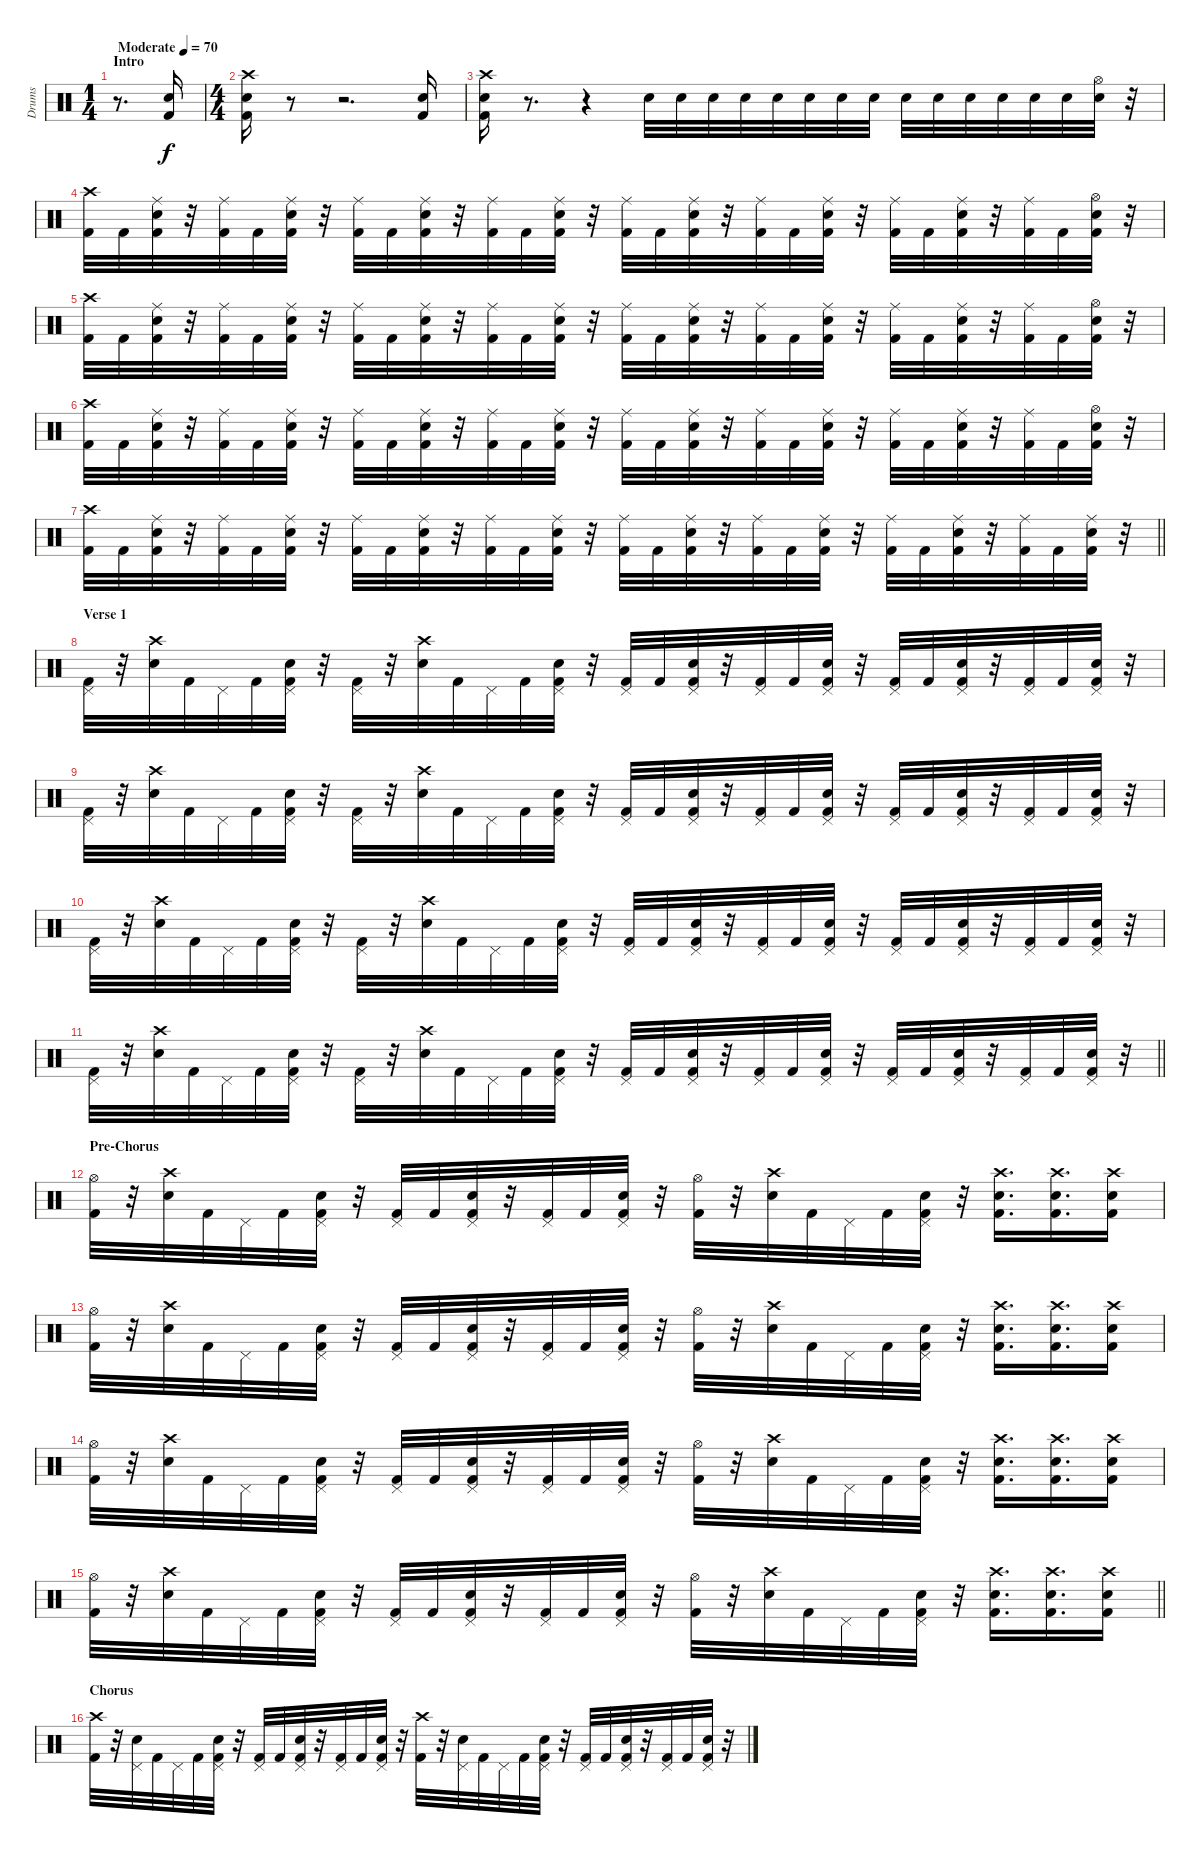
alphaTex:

\track ("Drums" "Drums") {instrument percussion}
\staff {score}
\articulation defaults
\ts (1 4)
\section ("" "Intro")
\tempo (70 "Moderate")
\clef neutral
\ks c
r.8{d dy f} ("Snare (hit) 2" "Kick (hit) 2").16 |
\ts (4 4)
("Crash high (hit)" "Snare (hit) 2" "Kick (hit) 2").16 r.8 r.2{d} ("Snare (hit) 2" "Kick (hit) 2").16 |
("Crash high (hit)" "Snare (hit) 2" "Kick (hit) 2").16 r.8{d} r.4 "Snare (hit) 2".32 "Snare (hit) 2".32 "Snare (hit) 2".32 "Snare (hit) 2".32 "Snare (hit) 2".32 "Snare (hit) 2".32 "Snare (hit) 2".32 "Snare (hit) 2".32 "Snare (hit) 2".32 "Snare (hit) 2".32 "Snare (hit) 2".32 "Snare (hit) 2".32 "Snare (hit) 2".32 "Snare (hit) 2".32 ("Hi-Hat (open)" "Snare (hit) 2").32 r.32 |
("Crash high (hit)" "Kick (hit) 2").32 "Kick (hit) 2".32 ("Ride (middle)" "Snare (hit) 2" "Kick (hit) 2").32 r.32 ("Ride (middle)" "Kick (hit) 2").32 "Kick (hit) 2".32 ("Ride (middle)" "Snare (hit) 2" "Kick (hit) 2").32 r.32 ("Ride (middle)" "Kick (hit) 2").32 "Kick (hit) 2".32 ("Ride (middle)" "Snare (hit) 2" "Kick (hit) 2").32 r.32 ("Ride (middle)" "Kick (hit) 2").32 "Kick (hit) 2".32 ("Ride (middle)" "Snare (hit) 2" "Kick (hit) 2").32 r.32 ("Ride (middle)" "Kick (hit) 2").32 "Kick (hit) 2".32 ("Ride (middle)" "Snare (hit) 2" "Kick (hit) 2").32 r.32 ("Ride (middle)" "Kick (hit) 2").32 "Kick (hit) 2".32 ("Ride (middle)" "Snare (hit) 2" "Kick (hit) 2").32 r.32 ("Ride (middle)" "Kick (hit) 2").32 "Kick (hit) 2".32 ("Ride (middle)" "Snare (hit) 2" "Kick (hit) 2").32 r.32 ("Ride (middle)" "Kick (hit) 2").32 "Kick (hit) 2".32 ("Hi-Hat (open)" "Snare (hit) 2" "Kick (hit) 2").32 r.32 |
("Crash high (hit)" "Kick (hit) 2").32 "Kick (hit) 2".32 ("Ride (middle)" "Snare (hit) 2" "Kick (hit) 2").32 r.32 ("Ride (middle)" "Kick (hit) 2").32 "Kick (hit) 2".32 ("Ride (middle)" "Snare (hit) 2" "Kick (hit) 2").32 r.32 ("Ride (middle)" "Kick (hit) 2").32 "Kick (hit) 2".32 ("Ride (middle)" "Snare (hit) 2" "Kick (hit) 2").32 r.32 ("Ride (middle)" "Kick (hit) 2").32 "Kick (hit) 2".32 ("Ride (middle)" "Snare (hit) 2" "Kick (hit) 2").32 r.32 ("Ride (middle)" "Kick (hit) 2").32 "Kick (hit) 2".32 ("Ride (middle)" "Snare (hit) 2" "Kick (hit) 2").32 r.32 ("Ride (middle)" "Kick (hit) 2").32 "Kick (hit) 2".32 ("Ride (middle)" "Snare (hit) 2" "Kick (hit) 2").32 r.32 ("Ride (middle)" "Kick (hit) 2").32 "Kick (hit) 2".32 ("Ride (middle)" "Snare (hit) 2" "Kick (hit) 2").32 r.32 ("Ride (middle)" "Kick (hit) 2").32 "Kick (hit) 2".32 ("Hi-Hat (open)" "Snare (hit) 2" "Kick (hit) 2").32 r.32 |
("Crash high (hit)" "Kick (hit) 2").32 "Kick (hit) 2".32 ("Ride (middle)" "Snare (hit) 2" "Kick (hit) 2").32 r.32 ("Ride (middle)" "Kick (hit) 2").32 "Kick (hit) 2".32 ("Ride (middle)" "Snare (hit) 2" "Kick (hit) 2").32 r.32 ("Ride (middle)" "Kick (hit) 2").32 "Kick (hit) 2".32 ("Ride (middle)" "Snare (hit) 2" "Kick (hit) 2").32 r.32 ("Ride (middle)" "Kick (hit) 2").32 "Kick (hit) 2".32 ("Ride (middle)" "Snare (hit) 2" "Kick (hit) 2").32 r.32 ("Ride (middle)" "Kick (hit) 2").32 "Kick (hit) 2".32 ("Ride (middle)" "Snare (hit) 2" "Kick (hit) 2").32 r.32 ("Ride (middle)" "Kick (hit) 2").32 "Kick (hit) 2".32 ("Ride (middle)" "Snare (hit) 2" "Kick (hit) 2").32 r.32 ("Ride (middle)" "Kick (hit) 2").32 "Kick (hit) 2".32 ("Ride (middle)" "Snare (hit) 2" "Kick (hit) 2").32 r.32 ("Ride (middle)" "Kick (hit) 2").32 "Kick (hit) 2".32 ("Hi-Hat (open)" "Snare (hit) 2" "Kick (hit) 2").32 r.32 |
\barLineRight lightlight
("Crash high (hit)" "Kick (hit) 2").32 "Kick (hit) 2".32 ("Ride (middle)" "Snare (hit) 2" "Kick (hit) 2").32 r.32 ("Ride (middle)" "Kick (hit) 2").32 "Kick (hit) 2".32 ("Ride (middle)" "Snare (hit) 2" "Kick (hit) 2").32 r.32 ("Ride (middle)" "Kick (hit) 2").32 "Kick (hit) 2".32 ("Ride (middle)" "Snare (hit) 2" "Kick (hit) 2").32 r.32 ("Ride (middle)" "Kick (hit) 2").32 "Kick (hit) 2".32 ("Ride (middle)" "Snare (hit) 2" "Kick (hit) 2").32 r.32 ("Ride (middle)" "Kick (hit) 2").32 "Kick (hit) 2".32 ("Ride (middle)" "Snare (hit) 2" "Kick (hit) 2").32 r.32 ("Ride (middle)" "Kick (hit) 2").32 "Kick (hit) 2".32 ("Ride (middle)" "Snare (hit) 2" "Kick (hit) 2").32 r.32 ("Ride (middle)" "Kick (hit) 2").32 "Kick (hit) 2".32 ("Ride (middle)" "Snare (hit) 2" "Kick (hit) 2").32 r.32 ("Ride (middle)" "Kick (hit) 2").32 "Kick (hit) 2".32 ("Ride (middle)" "Snare (hit) 2" "Kick (hit) 2").32 r.32 |
\section ("" "Verse 1")
("Pedal Hi-Hat (hit)" "Kick (hit) 2").32 r.32 ("Crash high (hit)" "Snare (hit) 2").32 "Kick (hit) 2".32 "Pedal Hi-Hat (hit)".32 "Kick (hit) 2".32 ("Pedal Hi-Hat (hit)" "Snare (hit) 2" "Kick (hit) 2").32 r.32 ("Pedal Hi-Hat (hit)" "Kick (hit) 2").32 r.32 ("Crash high (hit)" "Snare (hit) 2").32 "Kick (hit) 2".32 "Pedal Hi-Hat (hit)".32 "Kick (hit) 2".32 ("Pedal Hi-Hat (hit)" "Snare (hit) 2" "Kick (hit) 2").32 r.32 ("Pedal Hi-Hat (hit)" "Kick (hit) 2").32 "Kick (hit) 2".32 ("Pedal Hi-Hat (hit)" "Snare (hit) 2" "Kick (hit) 2").32 r.32 ("Pedal Hi-Hat (hit)" "Kick (hit) 2").32 "Kick (hit) 2".32 ("Pedal Hi-Hat (hit)" "Snare (hit) 2" "Kick (hit) 2").32 r.32 ("Pedal Hi-Hat (hit)" "Kick (hit) 2").32 "Kick (hit) 2".32 ("Pedal Hi-Hat (hit)" "Snare (hit) 2" "Kick (hit) 2").32 r.32 ("Pedal Hi-Hat (hit)" "Kick (hit) 2").32 "Kick (hit) 2".32 ("Pedal Hi-Hat (hit)" "Snare (hit) 2" "Kick (hit) 2").32 r.32 |
("Pedal Hi-Hat (hit)" "Kick (hit) 2").32 r.32 ("Crash high (hit)" "Snare (hit) 2").32 "Kick (hit) 2".32 "Pedal Hi-Hat (hit)".32 "Kick (hit) 2".32 ("Pedal Hi-Hat (hit)" "Snare (hit) 2" "Kick (hit) 2").32 r.32 ("Pedal Hi-Hat (hit)" "Kick (hit) 2").32 r.32 ("Crash high (hit)" "Snare (hit) 2").32 "Kick (hit) 2".32 "Pedal Hi-Hat (hit)".32 "Kick (hit) 2".32 ("Pedal Hi-Hat (hit)" "Snare (hit) 2" "Kick (hit) 2").32 r.32 ("Pedal Hi-Hat (hit)" "Kick (hit) 2").32 "Kick (hit) 2".32 ("Pedal Hi-Hat (hit)" "Snare (hit) 2" "Kick (hit) 2").32 r.32 ("Pedal Hi-Hat (hit)" "Kick (hit) 2").32 "Kick (hit) 2".32 ("Pedal Hi-Hat (hit)" "Snare (hit) 2" "Kick (hit) 2").32 r.32 ("Pedal Hi-Hat (hit)" "Kick (hit) 2").32 "Kick (hit) 2".32 ("Pedal Hi-Hat (hit)" "Snare (hit) 2" "Kick (hit) 2").32 r.32 ("Pedal Hi-Hat (hit)" "Kick (hit) 2").32 "Kick (hit) 2".32 ("Pedal Hi-Hat (hit)" "Snare (hit) 2" "Kick (hit) 2").32 r.32 |
("Pedal Hi-Hat (hit)" "Kick (hit) 2").32 r.32 ("Crash high (hit)" "Snare (hit) 2").32 "Kick (hit) 2".32 "Pedal Hi-Hat (hit)".32 "Kick (hit) 2".32 ("Pedal Hi-Hat (hit)" "Snare (hit) 2" "Kick (hit) 2").32 r.32 ("Pedal Hi-Hat (hit)" "Kick (hit) 2").32 r.32 ("Crash high (hit)" "Snare (hit) 2").32 "Kick (hit) 2".32 "Pedal Hi-Hat (hit)".32 "Kick (hit) 2".32 ("Pedal Hi-Hat (hit)" "Snare (hit) 2" "Kick (hit) 2").32 r.32 ("Pedal Hi-Hat (hit)" "Kick (hit) 2").32 "Kick (hit) 2".32 ("Pedal Hi-Hat (hit)" "Snare (hit) 2" "Kick (hit) 2").32 r.32 ("Pedal Hi-Hat (hit)" "Kick (hit) 2").32 "Kick (hit) 2".32 ("Pedal Hi-Hat (hit)" "Snare (hit) 2" "Kick (hit) 2").32 r.32 ("Pedal Hi-Hat (hit)" "Kick (hit) 2").32 "Kick (hit) 2".32 ("Pedal Hi-Hat (hit)" "Snare (hit) 2" "Kick (hit) 2").32 r.32 ("Pedal Hi-Hat (hit)" "Kick (hit) 2").32 "Kick (hit) 2".32 ("Pedal Hi-Hat (hit)" "Snare (hit) 2" "Kick (hit) 2").32 r.32 |
\barLineRight lightlight
("Pedal Hi-Hat (hit)" "Kick (hit) 2").32 r.32 ("Crash high (hit)" "Snare (hit) 2").32 "Kick (hit) 2".32 "Pedal Hi-Hat (hit)".32 "Kick (hit) 2".32 ("Pedal Hi-Hat (hit)" "Snare (hit) 2" "Kick (hit) 2").32 r.32 ("Pedal Hi-Hat (hit)" "Kick (hit) 2").32 r.32 ("Crash high (hit)" "Snare (hit) 2").32 "Kick (hit) 2".32 "Pedal Hi-Hat (hit)".32 "Kick (hit) 2".32 ("Pedal Hi-Hat (hit)" "Snare (hit) 2" "Kick (hit) 2").32 r.32 ("Pedal Hi-Hat (hit)" "Kick (hit) 2").32 "Kick (hit) 2".32 ("Pedal Hi-Hat (hit)" "Snare (hit) 2" "Kick (hit) 2").32 r.32 ("Pedal Hi-Hat (hit)" "Kick (hit) 2").32 "Kick (hit) 2".32 ("Pedal Hi-Hat (hit)" "Snare (hit) 2" "Kick (hit) 2").32 r.32 ("Pedal Hi-Hat (hit)" "Kick (hit) 2").32 "Kick (hit) 2".32 ("Pedal Hi-Hat (hit)" "Snare (hit) 2" "Kick (hit) 2").32 r.32 ("Pedal Hi-Hat (hit)" "Kick (hit) 2").32 "Kick (hit) 2".32 ("Pedal Hi-Hat (hit)" "Snare (hit) 2" "Kick (hit) 2").32 r.32 |
\section ("" "Pre-Chorus")
("Hi-Hat (open)" "Kick (hit) 2").32 r.32 ("Crash high (hit)" "Snare (hit) 2").32 "Kick (hit) 2".32 "Pedal Hi-Hat (hit)".32 "Kick (hit) 2".32 ("Pedal Hi-Hat (hit)" "Snare (hit) 2" "Kick (hit) 2").32 r.32 ("Pedal Hi-Hat (hit)" "Kick (hit) 2").32 "Kick (hit) 2".32 ("Pedal Hi-Hat (hit)" "Snare (hit) 2" "Kick (hit) 2").32 r.32 ("Pedal Hi-Hat (hit)" "Kick (hit) 2").32 "Kick (hit) 2".32 ("Pedal Hi-Hat (hit)" "Snare (hit) 2" "Kick (hit) 2").32 r.32 ("Hi-Hat (open)" "Kick (hit) 2").32 r.32 ("Crash high (hit)" "Snare (hit) 2").32 "Kick (hit) 2".32 "Pedal Hi-Hat (hit)".32 "Kick (hit) 2".32 ("Pedal Hi-Hat (hit)" "Snare (hit) 2" "Kick (hit) 2").32 r.32 ("Crash high (hit)" "Snare (hit) 2" "Kick (hit) 2").16{d} ("Crash high (hit)" "Snare (hit) 2" "Kick (hit) 2").16{d} ("Crash high (hit)" "Snare (hit) 2" "Kick (hit) 2").16 |
("Hi-Hat (open)" "Kick (hit) 2").32 r.32 ("Crash high (hit)" "Snare (hit) 2").32 "Kick (hit) 2".32 "Pedal Hi-Hat (hit)".32 "Kick (hit) 2".32 ("Pedal Hi-Hat (hit)" "Snare (hit) 2" "Kick (hit) 2").32 r.32 ("Pedal Hi-Hat (hit)" "Kick (hit) 2").32 "Kick (hit) 2".32 ("Pedal Hi-Hat (hit)" "Snare (hit) 2" "Kick (hit) 2").32 r.32 ("Pedal Hi-Hat (hit)" "Kick (hit) 2").32 "Kick (hit) 2".32 ("Pedal Hi-Hat (hit)" "Snare (hit) 2" "Kick (hit) 2").32 r.32 ("Hi-Hat (open)" "Kick (hit) 2").32 r.32 ("Crash high (hit)" "Snare (hit) 2").32 "Kick (hit) 2".32 "Pedal Hi-Hat (hit)".32 "Kick (hit) 2".32 ("Pedal Hi-Hat (hit)" "Snare (hit) 2" "Kick (hit) 2").32 r.32 ("Crash high (hit)" "Snare (hit) 2" "Kick (hit) 2").16{d} ("Crash high (hit)" "Snare (hit) 2" "Kick (hit) 2").16{d} ("Crash high (hit)" "Snare (hit) 2" "Kick (hit) 2").16 |
("Hi-Hat (open)" "Kick (hit) 2").32 r.32 ("Crash high (hit)" "Snare (hit) 2").32 "Kick (hit) 2".32 "Pedal Hi-Hat (hit)".32 "Kick (hit) 2".32 ("Pedal Hi-Hat (hit)" "Snare (hit) 2" "Kick (hit) 2").32 r.32 ("Pedal Hi-Hat (hit)" "Kick (hit) 2").32 "Kick (hit) 2".32 ("Pedal Hi-Hat (hit)" "Snare (hit) 2" "Kick (hit) 2").32 r.32 ("Pedal Hi-Hat (hit)" "Kick (hit) 2").32 "Kick (hit) 2".32 ("Pedal Hi-Hat (hit)" "Snare (hit) 2" "Kick (hit) 2").32 r.32 ("Hi-Hat (open)" "Kick (hit) 2").32 r.32 ("Crash high (hit)" "Snare (hit) 2").32 "Kick (hit) 2".32 "Pedal Hi-Hat (hit)".32 "Kick (hit) 2".32 ("Pedal Hi-Hat (hit)" "Snare (hit) 2" "Kick (hit) 2").32 r.32 ("Crash high (hit)" "Snare (hit) 2" "Kick (hit) 2").16{d} ("Crash high (hit)" "Snare (hit) 2" "Kick (hit) 2").16{d} ("Crash high (hit)" "Snare (hit) 2" "Kick (hit) 2").16 |
\barLineRight lightlight
("Hi-Hat (open)" "Kick (hit) 2").32 r.32 ("Crash high (hit)" "Snare (hit) 2").32 "Kick (hit) 2".32 "Pedal Hi-Hat (hit)".32 "Kick (hit) 2".32 ("Pedal Hi-Hat (hit)" "Snare (hit) 2" "Kick (hit) 2").32 r.32 ("Pedal Hi-Hat (hit)" "Kick (hit) 2").32 "Kick (hit) 2".32 ("Pedal Hi-Hat (hit)" "Snare (hit) 2" "Kick (hit) 2").32 r.32 ("Pedal Hi-Hat (hit)" "Kick (hit) 2").32 "Kick (hit) 2".32 ("Pedal Hi-Hat (hit)" "Snare (hit) 2" "Kick (hit) 2").32 r.32 ("Hi-Hat (open)" "Kick (hit) 2").32 r.32 ("Crash high (hit)" "Snare (hit) 2").32 "Kick (hit) 2".32 "Pedal Hi-Hat (hit)".32 "Kick (hit) 2".32 ("Pedal Hi-Hat (hit)" "Snare (hit) 2" "Kick (hit) 2").32 r.32 ("Crash high (hit)" "Snare (hit) 2" "Kick (hit) 2").16{d} ("Crash high (hit)" "Snare (hit) 2" "Kick (hit) 2").16{d} ("Crash high (hit)" "Snare (hit) 2" "Kick (hit) 2").16 |
\section ("" "Chorus")
("Crash high (hit)" "Kick (hit) 2").32 r.32 ("Pedal Hi-Hat (hit)" "Snare (hit) 2").32 "Kick (hit) 2".32 "Pedal Hi-Hat (hit)".32 "Kick (hit) 2".32 ("Pedal Hi-Hat (hit)" "Snare (hit) 2" "Kick (hit) 2").32 r.32 ("Pedal Hi-Hat (hit)" "Kick (hit) 2").32 "Kick (hit) 2".32 ("Pedal Hi-Hat (hit)" "Snare (hit) 2" "Kick (hit) 2").32 r.32 ("Pedal Hi-Hat (hit)" "Kick (hit) 2").32 "Kick (hit) 2".32 ("Pedal Hi-Hat (hit)" "Snare (hit) 2" "Kick (hit) 2").32 r.32 ("Crash high (hit)" "Kick (hit) 2").32 r.32 ("Pedal Hi-Hat (hit)" "Snare (hit) 2").32 "Kick (hit) 2".32 "Pedal Hi-Hat (hit)".32 "Kick (hit) 2".32 ("Pedal Hi-Hat (hit)" "Snare (hit) 2" "Kick (hit) 2").32 r.32 ("Pedal Hi-Hat (hit)" "Kick (hit) 2").32 "Kick (hit) 2".32 ("Pedal Hi-Hat (hit)" "Snare (hit) 2" "Kick (hit) 2").32 r.32 ("Pedal Hi-Hat (hit)" "Kick (hit) 2").32 "Kick (hit) 2".32 ("Pedal Hi-Hat (hit)" "Snare (hit) 2" "Kick (hit) 2").32 r.32
